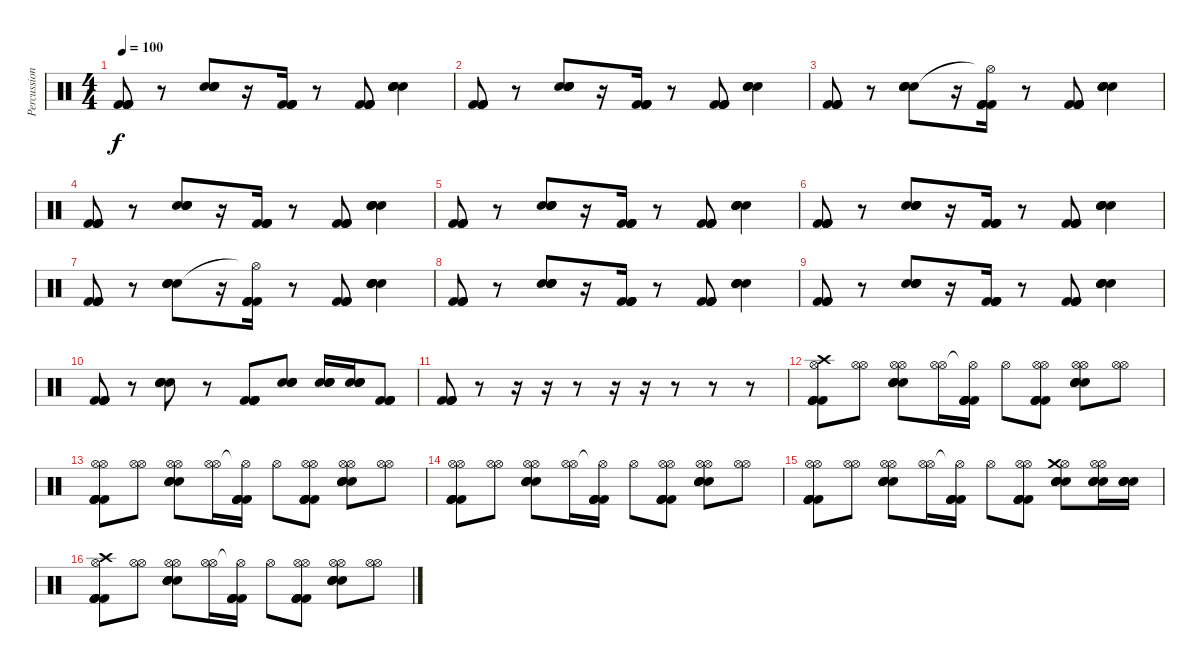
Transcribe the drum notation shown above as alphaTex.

\track ("Percussion" "Percussion") {instrument percussion}
\staff {score}
\articulation defaults
\ts (4 4)
\tempo 100
\clef neutral
\ks c
("Kick (hit) 2" "Kick (hit) 2" "Kick (hit) 2" "Kick (hit) 2").8{dy f} r.8 ("Electric Snare (hit)" "Electric Snare (hit)" "Electric Snare (hit)" "Electric Snare (hit)").8 r.16 ("Kick (hit) 2" "Kick (hit) 2" "Kick (hit) 2" "Kick (hit) 2").16 r.8 ("Kick (hit) 2" "Kick (hit) 2" "Kick (hit) 2" "Kick (hit) 2").8 ("Electric Snare (hit)" "Electric Snare (hit)" "Electric Snare (hit)" "Electric Snare (hit)").4 |
("Kick (hit) 2" "Kick (hit) 2" "Kick (hit) 2" "Kick (hit) 2").8 r.8 ("Electric Snare (hit)" "Electric Snare (hit)" "Electric Snare (hit)" "Electric Snare (hit)").8 r.16 ("Kick (hit) 2" "Kick (hit) 2" "Kick (hit) 2" "Kick (hit) 2").16 r.8 ("Kick (hit) 2" "Kick (hit) 2" "Kick (hit) 2" "Kick (hit) 2").8 ("Electric Snare (hit)" "Electric Snare (hit)" "Electric Snare (hit)" "Electric Snare (hit)").4 |
("Kick (hit) 2" "Kick (hit) 2" "Kick (hit) 2" "Kick (hit) 2").8 r.8 ("Electric Snare (hit)" "Electric Snare (hit)" "Electric Snare (hit)" "Electric Snare (hit)").8 r.16 ("Hi-Hat (open)"{t} "Kick (hit) 2" "Kick (hit) 2" "Kick (hit) 2" "Kick (hit) 2").16 r.8 ("Kick (hit) 2" "Kick (hit) 2" "Kick (hit) 2" "Kick (hit) 2").8 ("Electric Snare (hit)" "Electric Snare (hit)" "Electric Snare (hit)" "Electric Snare (hit)").4 |
("Kick (hit) 2" "Kick (hit) 2" "Kick (hit) 2" "Kick (hit) 2").8 r.8 ("Electric Snare (hit)" "Electric Snare (hit)" "Electric Snare (hit)" "Electric Snare (hit)").8 r.16 ("Kick (hit) 2" "Kick (hit) 2" "Kick (hit) 2" "Kick (hit) 2").16 r.8 ("Kick (hit) 2" "Kick (hit) 2" "Kick (hit) 2" "Kick (hit) 2").8 ("Electric Snare (hit)" "Electric Snare (hit)" "Electric Snare (hit)" "Electric Snare (hit)").4 |
("Kick (hit) 2" "Kick (hit) 2" "Kick (hit) 2" "Kick (hit) 2").8 r.8 ("Electric Snare (hit)" "Electric Snare (hit)" "Electric Snare (hit)" "Electric Snare (hit)").8 r.16 ("Kick (hit) 2" "Kick (hit) 2" "Kick (hit) 2" "Kick (hit) 2").16 r.8 ("Kick (hit) 2" "Kick (hit) 2" "Kick (hit) 2" "Kick (hit) 2").8 ("Electric Snare (hit)" "Electric Snare (hit)" "Electric Snare (hit)" "Electric Snare (hit)").4 |
("Kick (hit) 2" "Kick (hit) 2" "Kick (hit) 2" "Kick (hit) 2").8 r.8 ("Electric Snare (hit)" "Electric Snare (hit)" "Electric Snare (hit)" "Electric Snare (hit)").8 r.16 ("Kick (hit) 2" "Kick (hit) 2" "Kick (hit) 2" "Kick (hit) 2").16 r.8 ("Kick (hit) 2" "Kick (hit) 2" "Kick (hit) 2" "Kick (hit) 2").8 ("Electric Snare (hit)" "Electric Snare (hit)" "Electric Snare (hit)" "Electric Snare (hit)").4 |
("Kick (hit) 2" "Kick (hit) 2" "Kick (hit) 2" "Kick (hit) 2").8 r.8 ("Electric Snare (hit)" "Electric Snare (hit)" "Electric Snare (hit)" "Electric Snare (hit)").8 r.16 ("Hi-Hat (open)"{t} "Kick (hit) 2" "Kick (hit) 2" "Kick (hit) 2" "Kick (hit) 2").16 r.8 ("Kick (hit) 2" "Kick (hit) 2" "Kick (hit) 2" "Kick (hit) 2").8 ("Electric Snare (hit)" "Electric Snare (hit)" "Electric Snare (hit)" "Electric Snare (hit)").4 |
("Kick (hit) 2" "Kick (hit) 2" "Kick (hit) 2" "Kick (hit) 2").8 r.8 ("Electric Snare (hit)" "Electric Snare (hit)" "Electric Snare (hit)" "Electric Snare (hit)").8 r.16 ("Kick (hit) 2" "Kick (hit) 2" "Kick (hit) 2" "Kick (hit) 2").16 r.8 ("Kick (hit) 2" "Kick (hit) 2" "Kick (hit) 2" "Kick (hit) 2").8 ("Electric Snare (hit)" "Electric Snare (hit)" "Electric Snare (hit)" "Electric Snare (hit)").4 |
("Kick (hit) 2" "Kick (hit) 2" "Kick (hit) 2" "Kick (hit) 2").8 r.8 ("Electric Snare (hit)" "Electric Snare (hit)" "Electric Snare (hit)" "Electric Snare (hit)").8 r.16 ("Kick (hit) 2" "Kick (hit) 2" "Kick (hit) 2" "Kick (hit) 2").16 r.8 ("Kick (hit) 2" "Kick (hit) 2" "Kick (hit) 2" "Kick (hit) 2").8 ("Electric Snare (hit)" "Electric Snare (hit)" "Electric Snare (hit)" "Electric Snare (hit)").4 |
("Kick (hit) 2" "Kick (hit) 2" "Kick (hit) 2" "Kick (hit) 2").8 r.8 ("Electric Snare (hit)" "Electric Snare (hit)" "Electric Snare (hit)" "Electric Snare (hit)").8 r.8 ("Kick (hit) 2" "Kick (hit) 2" "Kick (hit) 2" "Kick (hit) 2").8 ("Electric Snare (hit)" "Electric Snare (hit)" "Electric Snare (hit)" "Electric Snare (hit)").8 ("Electric Snare (hit)" "Electric Snare (hit)" "Electric Snare (hit)" "Electric Snare (hit)").16 ("Electric Snare (hit)" "Electric Snare (hit)" "Electric Snare (hit)" "Electric Snare (hit)").16 ("Kick (hit) 2" "Kick (hit) 2" "Kick (hit) 2" "Kick (hit) 2").8 |
("Kick (hit) 2" "Kick (hit) 2" "Kick (hit) 2" "Kick (hit) 2").8 r.8 r.16 r.16 r.8 r.16 r.16 r.8 r.8 r.8 |
("Hi-Hat (open)" "Kick (hit) 2" "Kick (hit) 2" "Kick (hit) 2" "Kick (hit) 2" "Crash high (hit)").8 ("Hi-Hat (open)" "Hi-Hat (open)").8 ("Hi-Hat (open)" "Electric Snare (hit)" "Electric Snare (hit)" "Electric Snare (hit)" "Electric Snare (hit)" "Hi-Hat (open)").8 ("Hi-Hat (open)" "Hi-Hat (open)").16 ("Hi-Hat (open)"{t} "Kick (hit) 2" "Kick (hit) 2" "Kick (hit) 2" "Kick (hit) 2").16 "Hi-Hat (open)".8 ("Hi-Hat (open)" "Kick (hit) 2" "Kick (hit) 2" "Kick (hit) 2" "Kick (hit) 2" "Hi-Hat (open)").8 ("Hi-Hat (open)" "Electric Snare (hit)" "Electric Snare (hit)" "Electric Snare (hit)" "Electric Snare (hit)" "Hi-Hat (open)").8 ("Hi-Hat (open)" "Hi-Hat (open)").8 |
("Hi-Hat (open)" "Kick (hit) 2" "Kick (hit) 2" "Kick (hit) 2" "Kick (hit) 2" "Hi-Hat (open)").8 ("Hi-Hat (open)" "Hi-Hat (open)").8 ("Hi-Hat (open)" "Electric Snare (hit)" "Electric Snare (hit)" "Electric Snare (hit)" "Electric Snare (hit)" "Hi-Hat (open)").8 ("Hi-Hat (open)" "Hi-Hat (open)").16 ("Hi-Hat (open)"{t} "Kick (hit) 2" "Kick (hit) 2" "Kick (hit) 2" "Kick (hit) 2").16 "Hi-Hat (open)".8 ("Hi-Hat (open)" "Kick (hit) 2" "Kick (hit) 2" "Kick (hit) 2" "Kick (hit) 2" "Hi-Hat (open)").8 ("Hi-Hat (open)" "Electric Snare (hit)" "Electric Snare (hit)" "Electric Snare (hit)" "Electric Snare (hit)" "Hi-Hat (open)").8 ("Hi-Hat (open)" "Hi-Hat (open)").8 |
("Hi-Hat (open)" "Kick (hit) 2" "Kick (hit) 2" "Kick (hit) 2" "Kick (hit) 2" "Hi-Hat (open)").8 ("Hi-Hat (open)" "Hi-Hat (open)").8 ("Hi-Hat (open)" "Electric Snare (hit)" "Electric Snare (hit)" "Electric Snare (hit)" "Electric Snare (hit)" "Hi-Hat (open)").8 ("Hi-Hat (open)" "Hi-Hat (open)").16 ("Hi-Hat (open)"{t} "Kick (hit) 2" "Kick (hit) 2" "Kick (hit) 2" "Kick (hit) 2").16 "Hi-Hat (open)".8 ("Hi-Hat (open)" "Kick (hit) 2" "Kick (hit) 2" "Kick (hit) 2" "Kick (hit) 2" "Hi-Hat (open)").8 ("Hi-Hat (open)" "Electric Snare (hit)" "Electric Snare (hit)" "Electric Snare (hit)" "Electric Snare (hit)" "Hi-Hat (open)").8 ("Hi-Hat (open)" "Hi-Hat (open)").8 |
("Hi-Hat (open)" "Kick (hit) 2" "Kick (hit) 2" "Kick (hit) 2" "Kick (hit) 2" "Hi-Hat (open)").8 ("Hi-Hat (open)" "Hi-Hat (open)").8 ("Hi-Hat (open)" "Electric Snare (hit)" "Electric Snare (hit)" "Electric Snare (hit)" "Electric Snare (hit)" "Hi-Hat (open)").8 ("Hi-Hat (open)" "Hi-Hat (open)").16 ("Hi-Hat (open)"{t} "Kick (hit) 2" "Kick (hit) 2" "Kick (hit) 2" "Kick (hit) 2").16 "Hi-Hat (open)".8 ("Hi-Hat (open)" "Kick (hit) 2" "Kick (hit) 2" "Kick (hit) 2" "Kick (hit) 2" "Hi-Hat (open)").8 ("Hi-Hat (open)" "Electric Snare (hit)" "Electric Snare (hit)" "Electric Snare (hit)" "Electric Snare (hit)" "Crash medium (hit)").8 ("Hi-Hat (open)" "Electric Snare (hit)" "Electric Snare (hit)" "Electric Snare (hit)" "Electric Snare (hit)" "Hi-Hat (open)").16 ("Electric Snare (hit)" "Electric Snare (hit)" "Electric Snare (hit)" "Electric Snare (hit)").16 |
("Hi-Hat (open)" "Kick (hit) 2" "Kick (hit) 2" "Kick (hit) 2" "Kick (hit) 2" "Crash high (hit)").8 ("Hi-Hat (open)" "Hi-Hat (open)").8 ("Hi-Hat (open)" "Electric Snare (hit)" "Electric Snare (hit)" "Electric Snare (hit)" "Electric Snare (hit)" "Hi-Hat (open)").8 ("Hi-Hat (open)" "Hi-Hat (open)").16 ("Hi-Hat (open)"{t} "Kick (hit) 2" "Kick (hit) 2" "Kick (hit) 2" "Kick (hit) 2").16 "Hi-Hat (open)".8 ("Hi-Hat (open)" "Kick (hit) 2" "Kick (hit) 2" "Kick (hit) 2" "Kick (hit) 2" "Hi-Hat (open)").8 ("Hi-Hat (open)" "Electric Snare (hit)" "Electric Snare (hit)" "Electric Snare (hit)" "Electric Snare (hit)" "Hi-Hat (open)").8 ("Hi-Hat (open)" "Hi-Hat (open)").8
